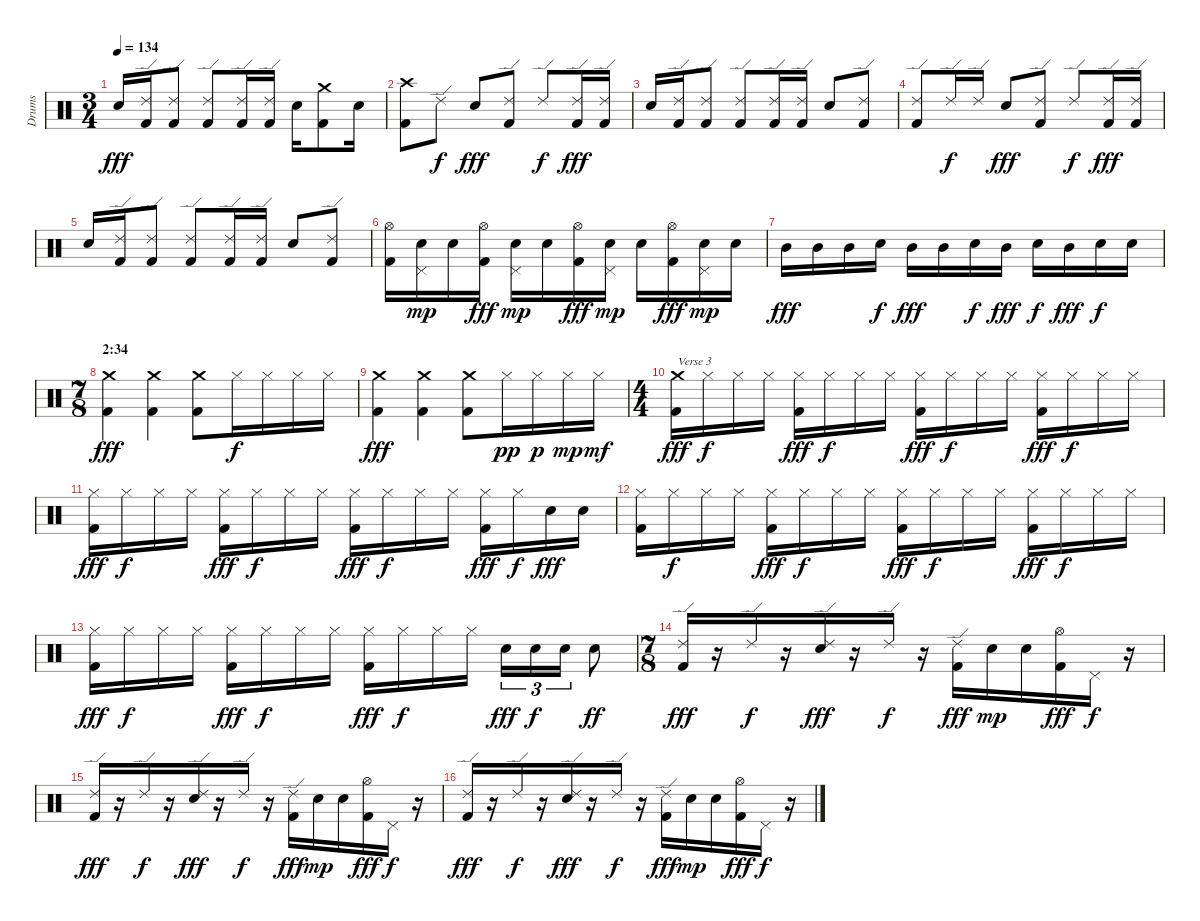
\track ("Drums" "Drums") {instrument percussion}
\staff {score}
\articulation defaults
\ts (3 4)
\tempo 134
\clef neutral
\ks c "Snare (hit) 2".16{dy fff}
("Ride (edge) 2" "Kick (hit) 2").16 ("Ride (edge) 2" "Kick (hit) 2").8 ("Ride (edge) 2" "Kick (hit) 2").8 ("Ride (edge) 2" "Kick (hit) 2").16 ("Ride (edge) 2" "Kick (hit) 2").16 "Snare (hit) 2".16 ("Crash medium (hit)" "Kick (hit) 2").8 "Snare (hit) 2".16 |
("Kick (hit) 2" "Crash high (hit)").8 "Ride (edge) 2".8{dy f} "Snare (hit) 2".8{dy fff} ("Ride (edge) 2" "Kick (hit) 2").8 "Ride (edge) 2".8{dy f} ("Ride (edge) 2" "Kick (hit) 2").16{dy fff} ("Ride (edge) 2" "Kick (hit) 2").16 |
"Snare (hit) 2".16 ("Ride (edge) 2" "Kick (hit) 2").16 ("Ride (edge) 2" "Kick (hit) 2").8 ("Ride (edge) 2" "Kick (hit) 2").8 ("Ride (edge) 2" "Kick (hit) 2").16 ("Ride (edge) 2" "Kick (hit) 2").16 "Snare (hit) 2".8 ("Ride (edge) 2" "Kick (hit) 2").8 |
("Ride (edge) 2" "Kick (hit) 2").8 "Ride (edge) 2".16{dy f} "Ride (edge) 2".16 "Snare (hit) 2".8{dy fff} ("Ride (edge) 2" "Kick (hit) 2").8 "Ride (edge) 2".8{dy f} ("Ride (edge) 2" "Kick (hit) 2").16{dy fff} ("Ride (edge) 2" "Kick (hit) 2").16 |
"Snare (hit) 2".16 ("Ride (edge) 2" "Kick (hit) 2").16 ("Ride (edge) 2" "Kick (hit) 2").8 ("Ride (edge) 2" "Kick (hit) 2").8 ("Ride (edge) 2" "Kick (hit) 2").16 ("Ride (edge) 2" "Kick (hit) 2").16 "Snare (hit) 2".8 ("Ride (edge) 2" "Kick (hit) 2").8 |
("Hi-Hat (open)" "Kick (hit) 2").16 ("Pedal Hi-Hat (hit)" "Snare (hit) 2").16{dy mp} "Snare (hit) 2".16 ("Hi-Hat (open)" "Kick (hit) 2").16{dy fff} ("Pedal Hi-Hat (hit)" "Snare (hit) 2").16{dy mp} "Snare (hit) 2".16 ("Hi-Hat (open)" "Kick (hit) 2").16{dy fff} ("Pedal Hi-Hat (hit)" "Snare (hit) 2").16{dy mp} "Snare (hit) 2".16 ("Hi-Hat (open)" "Kick (hit) 2").16{dy fff} ("Pedal Hi-Hat (hit)" "Snare (hit) 2").16{dy mp} "Snare (hit) 2".16 |
"Mid Tom (hit)".16{dy fff} "Mid Tom (hit)".16 "Mid Tom (hit)".16 "Snare (hit) 2".16{dy f} "Mid Tom (hit)".16{dy fff} "Mid Tom (hit)".16 "Snare (hit) 2".16{dy f} "Mid Tom (hit)".16{dy fff} "Snare (hit) 2".16{dy f} "Mid Tom (hit)".16{dy fff} "Snare (hit) 2".16{dy f} "Snare (hit) 2".16 |
\ts (7 8)
\section ("" "2:34")
("Crash medium (hit)" "Kick (hit) 2").4{dy fff} ("Crash medium (hit)" "Kick (hit) 2").4 ("Crash medium (hit)" "Kick (hit) 2").8 "Hi-Hat (closed)".16{dy f} "Hi-Hat (closed)".16 "Hi-Hat (closed)".16 "Hi-Hat (closed)".16 |
("Crash medium (hit)" "Kick (hit) 2").4{dy fff} ("Crash medium (hit)" "Kick (hit) 2").4 ("Crash medium (hit)" "Kick (hit) 2").8 "Hi-Hat (closed)".16{dy pp} "Hi-Hat (closed)".16{dy p} "Hi-Hat (closed)".16{dy mp} "Hi-Hat (closed)".16{dy mf} |
\ts (4 4)
("Crash medium (hit)" "Kick (hit) 2").16{txt "Verse 3" dy fff} "Hi-Hat (closed)".16{dy f} "Hi-Hat (closed)".16 "Hi-Hat (closed)".16 ("Hi-Hat (closed)" "Kick (hit) 2").16{dy fff} "Hi-Hat (closed)".16{dy f} "Hi-Hat (closed)".16 "Hi-Hat (closed)".16 ("Hi-Hat (closed)" "Kick (hit) 2").16{dy fff} "Hi-Hat (closed)".16{dy f} "Hi-Hat (closed)".16 "Hi-Hat (closed)".16 ("Hi-Hat (closed)" "Kick (hit) 2").16{dy fff} "Hi-Hat (closed)".16{dy f} "Hi-Hat (closed)".16 "Hi-Hat (closed)".16 |
("Hi-Hat (closed)" "Kick (hit) 2").16{dy fff} "Hi-Hat (closed)".16{dy f} "Hi-Hat (closed)".16 "Hi-Hat (closed)".16 ("Hi-Hat (closed)" "Kick (hit) 2").16{dy fff} "Hi-Hat (closed)".16{dy f} "Hi-Hat (closed)".16 "Hi-Hat (closed)".16 ("Hi-Hat (closed)" "Kick (hit) 2").16{dy fff} "Hi-Hat (closed)".16{dy f} "Hi-Hat (closed)".16 "Hi-Hat (closed)".16 ("Hi-Hat (closed)" "Kick (hit) 2").16{dy fff} "Hi-Hat (closed)".16{dy f} "Snare (hit) 2".16{dy fff} "Snare (hit) 2".16 |
("Hi-Hat (closed)" "Kick (hit) 2").16 "Hi-Hat (closed)".16{dy f} "Hi-Hat (closed)".16 "Hi-Hat (closed)".16 ("Hi-Hat (closed)" "Kick (hit) 2").16{dy fff} "Hi-Hat (closed)".16{dy f} "Hi-Hat (closed)".16 "Hi-Hat (closed)".16 ("Hi-Hat (closed)" "Kick (hit) 2").16{dy fff} "Hi-Hat (closed)".16{dy f} "Hi-Hat (closed)".16 "Hi-Hat (closed)".16 ("Hi-Hat (closed)" "Kick (hit) 2").16{dy fff} "Hi-Hat (closed)".16{dy f} "Hi-Hat (closed)".16 "Hi-Hat (closed)".16 |
("Hi-Hat (closed)" "Kick (hit) 2").16{dy fff} "Hi-Hat (closed)".16{dy f} "Hi-Hat (closed)".16 "Hi-Hat (closed)".16 ("Hi-Hat (closed)" "Kick (hit) 2").16{dy fff} "Hi-Hat (closed)".16{dy f} "Hi-Hat (closed)".16 "Hi-Hat (closed)".16 ("Hi-Hat (closed)" "Kick (hit) 2").16{dy fff} "Hi-Hat (closed)".16{dy f} "Hi-Hat (closed)".16 "Hi-Hat (closed)".16 "Snare (hit) 2".16{tu (3 2) dy fff} "Snare (hit) 2".16{tu (3 2) dy f} "Snare (hit) 2".16{tu (3 2)} "Snare (hit) 2".8{dy ff} |
\ts (7 8)
("Ride (edge) 2" "Kick (hit) 2").16{dy fff} r.16 "Ride (edge) 2".16{dy f} r.16 ("Ride (edge) 2" "Snare (hit) 2").16{dy fff} r.16 "Ride (edge) 2".16{dy f} r.16 ("Ride (edge) 2" "Kick (hit) 2").16{dy fff} "Snare (hit) 2".16{dy mp} "Snare (hit) 2".16 ("Hi-Hat (open)" "Kick (hit) 2").16{dy fff} "Pedal Hi-Hat (hit)".16{dy f} r.16 |
("Ride (edge) 2" "Kick (hit) 2").16{dy fff} r.16 "Ride (edge) 2".16{dy f} r.16 ("Ride (edge) 2" "Snare (hit) 2").16{dy fff} r.16 "Ride (edge) 2".16{dy f} r.16 ("Ride (edge) 2" "Kick (hit) 2").16{dy fff} "Snare (hit) 2".16{dy mp} "Snare (hit) 2".16 ("Hi-Hat (open)" "Kick (hit) 2").16{dy fff} "Pedal Hi-Hat (hit)".16{dy f} r.16 |
("Ride (edge) 2" "Kick (hit) 2").16{dy fff} r.16 "Ride (edge) 2".16{dy f} r.16 ("Ride (edge) 2" "Snare (hit) 2").16{dy fff} r.16 "Ride (edge) 2".16{dy f} r.16 ("Ride (edge) 2" "Kick (hit) 2").16{dy fff} "Snare (hit) 2".16{dy mp} "Snare (hit) 2".16 ("Hi-Hat (open)" "Kick (hit) 2").16{dy fff} "Pedal Hi-Hat (hit)".16{dy f} r.16
